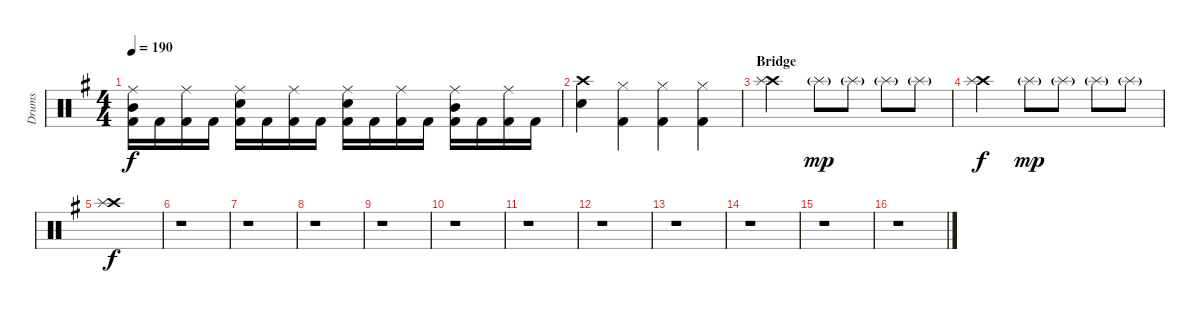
\track ("Drums" "Drums") {instrument percussion}
\staff {score}
\articulation defaults
\ts (4 4)
\tempo 190
\clef neutral
\ks eminor
("Ride (middle)" "Mid Tom (hit)" "Kick (hit) 2").16{dy f} "Kick (hit) 2".16 ("Ride (middle)" "Kick (hit) 2").16 "Kick (hit) 2".16 ("Ride (middle)" "Electric Snare (hit)" "Kick (hit) 2").16 "Kick (hit) 2".16 ("Ride (middle)" "Kick (hit) 2").16 "Kick (hit) 2".16 ("Ride (middle)" "Electric Snare (hit)" "Kick (hit) 2").16 "Kick (hit) 2".16 ("Ride (middle)" "Kick (hit) 2").16 "Kick (hit) 2".16 ("Ride (middle)" "Mid Tom (hit)" "Kick (hit) 2").16 "Kick (hit) 2".16 ("Ride (middle)" "Kick (hit) 2").16 "Kick (hit) 2".16 |
("Crash high (hit)" "Electric Snare (hit)").4 ("Hi-Hat (closed)" "Kick (hit) 2").4 ("Hi-Hat (closed)" "Kick (hit) 2").4 ("Hi-Hat (closed)" "Kick (hit) 2").4 |
\section ("" "Bridge")
("Crash high (hit)" "Splash (hit)").2 "Splash (hit)"{g}.8{dy mp} "Splash (hit)"{g}.8 "Splash (hit)"{g}.8 "Splash (hit)"{g}.8 |
("Crash high (hit)" "Splash (hit)").2{dy f} "Splash (hit)"{g}.8{dy mp} "Splash (hit)"{g}.8 "Splash (hit)"{g}.8 "Splash (hit)"{g}.8 |
("Crash high (hit)" "Splash (hit)").1{dy f} |
r.1 |
r.1 |
r.1 |
r.1 |
r.1 |
r.1 |
r.1 |
r.1 |
r.1 |
r.1 |
r.1
